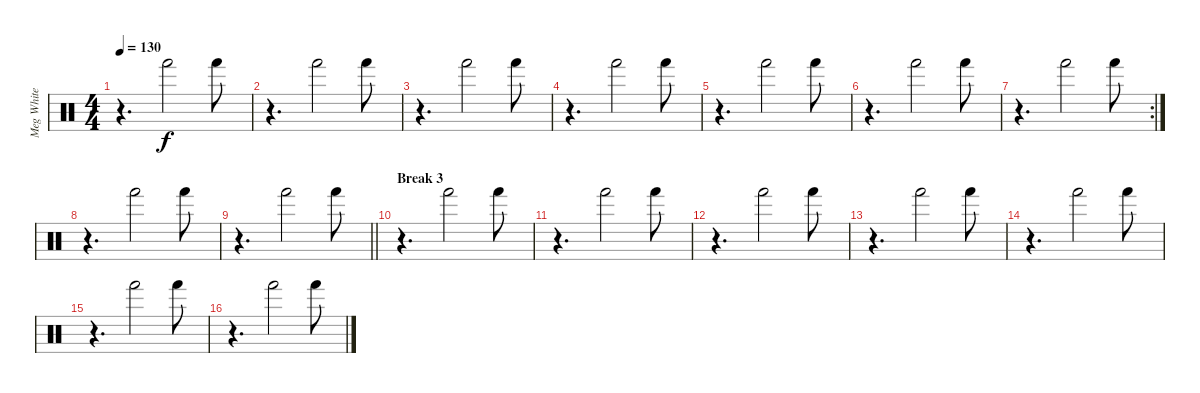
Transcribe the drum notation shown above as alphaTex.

\track ("Meg White" "Meg White") {instrument percussion}
\staff {score}
\articulation defaults
\ts (4 4)
\tempo 130
\clef neutral
\ks c
r.4{d dy f} "Hand (hit)".2 "Hand (hit)".8 |
r.4{d} "Hand (hit)".2 "Hand (hit)".8 |
r.4{d} "Hand (hit)".2 "Hand (hit)".8 |
r.4{d} "Hand (hit)".2 "Hand (hit)".8 |
r.4{d} "Hand (hit)".2 "Hand (hit)".8 |
r.4{d} "Hand (hit)".2 "Hand (hit)".8 |
\rc 2
r.4{d} "Hand (hit)".2 "Hand (hit)".8 |
r.4{d} "Hand (hit)".2 "Hand (hit)".8 |
\barLineRight lightlight
r.4{d} "Hand (hit)".2 "Hand (hit)".8 |
\section ("" "Break 3")
r.4{d} "Hand (hit)".2 "Hand (hit)".8 |
r.4{d} "Hand (hit)".2 "Hand (hit)".8 |
r.4{d} "Hand (hit)".2 "Hand (hit)".8 |
r.4{d} "Hand (hit)".2 "Hand (hit)".8 |
r.4{d} "Hand (hit)".2 "Hand (hit)".8 |
r.4{d} "Hand (hit)".2 "Hand (hit)".8 |
r.4{d} "Hand (hit)".2 "Hand (hit)".8
